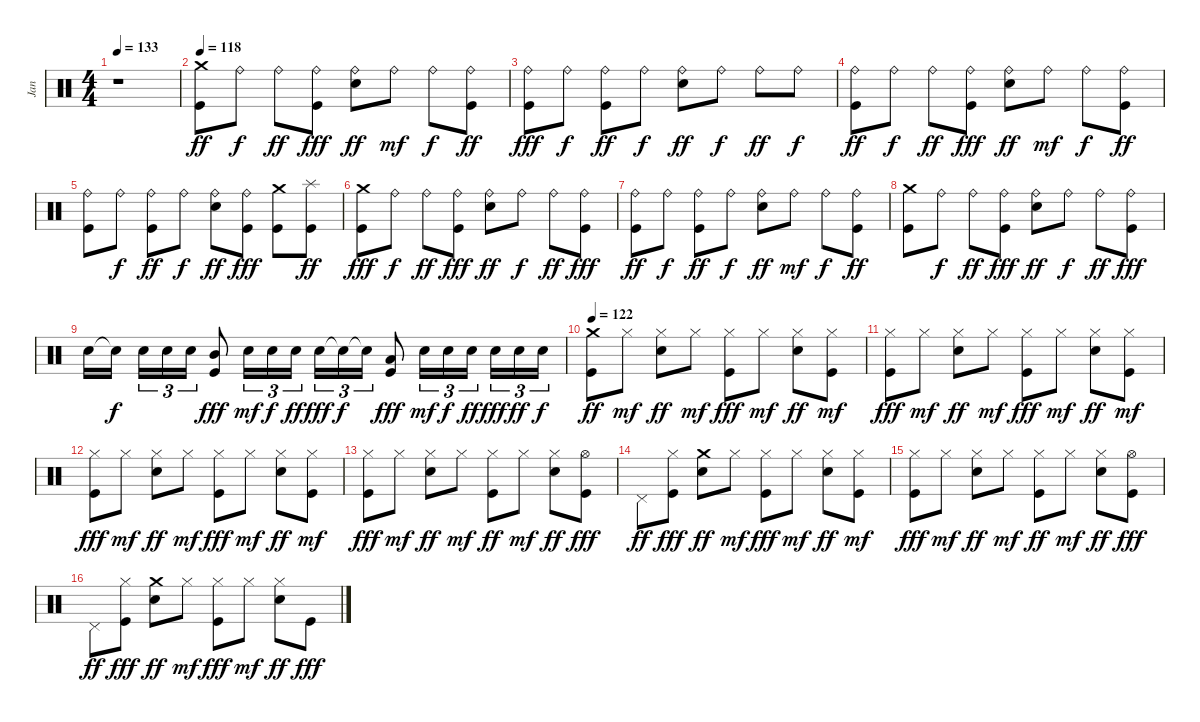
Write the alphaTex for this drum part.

\track ("Jan" "Jan") {instrument percussion}
\staff {score}
\articulation defaults
\ts (4 4)
\tempo 133
\clef neutral
\ks c
r.1{dy ff} |
\tempo 118
("Kick (hit)" "Crash medium (hit)").8 "Ride (bell)".8{dy f} "Ride (bell)".8{dy ff} ("Kick (hit)" "Ride (bell)").8{dy fff} ("Snare (hit) 2" "Ride (bell)").8{dy ff} "Ride (bell)".8{dy mf} "Ride (bell)".8{dy f} ("Kick (hit)" "Ride (bell)").8{dy ff} |
("Kick (hit)" "Ride (bell)").8{dy fff} "Ride (bell)".8{dy f} ("Kick (hit)" "Ride (bell)").8{dy ff} "Ride (bell)".8{dy f} ("Snare (hit) 2" "Ride (bell)").8{dy ff} "Ride (bell)".8{dy f} "Ride (bell)".8{dy ff} "Ride (bell)".8{dy f} |
("Kick (hit)" "Ride (bell)").8{dy ff} "Ride (bell)".8{dy f} "Ride (bell)".8{dy ff} ("Kick (hit)" "Ride (bell)").8{dy fff} ("Snare (hit) 2" "Ride (bell)").8{dy ff} "Ride (bell)".8{dy mf} "Ride (bell)".8{dy f} ("Kick (hit)" "Ride (bell)").8{dy ff} |
("Kick (hit)" "Ride (bell)").8 "Ride (bell)".8{dy f} ("Kick (hit)" "Ride (bell)").8{dy ff} "Ride (bell)".8{dy f} ("Snare (hit) 2" "Ride (bell)").8{dy ff} ("Kick (hit)" "Ride (bell)").8{dy fff} ("Kick (hit)" "Crash medium (hit)").8 ("Kick (hit)" "Splash (hit)").8{dy ff} |
("Kick (hit)" "Crash medium (hit)").8{dy fff} "Ride (bell)".8{dy f} "Ride (bell)".8{dy ff} ("Kick (hit)" "Ride (bell)").8{dy fff} ("Snare (hit) 2" "Ride (bell)").8{dy ff} "Ride (bell)".8{dy f} "Ride (bell)".8{dy ff} ("Kick (hit)" "Ride (bell)").8{dy fff} |
("Kick (hit)" "Ride (bell)").8{dy ff} "Ride (bell)".8{dy f} ("Kick (hit)" "Ride (bell)").8{dy ff} "Ride (bell)".8{dy f} ("Snare (hit) 2" "Ride (bell)").8{dy ff} "Ride (bell)".8{dy mf} "Ride (bell)".8{dy f} ("Kick (hit)" "Ride (bell)").8{dy ff} |
("Kick (hit)" "Crash medium (hit)").8 "Ride (bell)".8{dy f} "Ride (bell)".8{dy ff} ("Kick (hit)" "Ride (bell)").8{dy fff} ("Snare (hit) 2" "Ride (bell)").8{dy ff} "Ride (bell)".8{dy f} "Ride (bell)".8{dy ff} ("Kick (hit)" "Ride (bell)").8{dy fff} |
"Snare (hit) 2".16 "Snare (hit)"{t}.16{dy f} "Snare (hit) 2".16{tu (3 2)} "Snare (hit) 2".16{tu (3 2)} "Snare (hit) 2".16{tu (3 2)} ("Kick (hit)" "Mid Tom (hit)").8{dy fff} "Snare (hit) 2".16{tu (3 2) dy mf} "Snare (hit) 2".16{tu (3 2) dy f} "Snare (hit) 2".16{tu (3 2) dy ff} "Snare (hit) 2".16{tu (3 2) dy fff} "Snare (hit) 2"{t}.16{tu (3 2) dy f} "Snare (hit) 2"{t}.16{tu (3 2)} ("Kick (hit)" "Low Tom (hit)").8{dy fff} "Snare (hit) 2".16{tu (3 2) dy mf} "Snare (hit) 2".16{tu (3 2) dy f} "Snare (hit) 2".16{tu (3 2) dy ff} "Snare (hit) 2".16{tu (3 2) dy fff} "Snare (hit) 2".16{tu (3 2) dy ff} "Snare (hit) 2".16{tu (3 2) dy f} |
\tempo 122
("Kick (hit)" "Crash medium (hit)").8{dy ff} "Hi-Hat (closed)".8{dy mf} ("Snare (hit) 2" "Hi-Hat (closed)").8{dy ff} "Hi-Hat (closed)".8{dy mf} ("Kick (hit)" "Hi-Hat (closed)").8{dy fff} "Hi-Hat (closed)".8{dy mf} ("Snare (hit) 2" "Hi-Hat (closed)").8{dy ff} ("Kick (hit)" "Hi-Hat (closed)").8{dy mf} |
("Kick (hit)" "Hi-Hat (closed)").8{dy fff} "Hi-Hat (closed)".8{dy mf} ("Snare (hit) 2" "Hi-Hat (closed)").8{dy ff} "Hi-Hat (closed)".8{dy mf} ("Kick (hit)" "Hi-Hat (closed)").8{dy fff} "Hi-Hat (closed)".8{dy mf} ("Snare (hit) 2" "Hi-Hat (closed)").8{dy ff} ("Kick (hit)" "Hi-Hat (closed)").8{dy mf} |
("Kick (hit)" "Hi-Hat (closed)").8{dy fff} "Hi-Hat (closed)".8{dy mf} ("Snare (hit) 2" "Hi-Hat (closed)").8{dy ff} "Hi-Hat (closed)".8{dy mf} ("Kick (hit)" "Hi-Hat (closed)").8{dy fff} "Hi-Hat (closed)".8{dy mf} ("Snare (hit) 2" "Hi-Hat (closed)").8{dy ff} ("Kick (hit)" "Hi-Hat (closed)").8{dy mf} |
("Kick (hit)" "Hi-Hat (closed)").8{dy fff} "Hi-Hat (closed)".8{dy mf} ("Snare (hit) 2" "Hi-Hat (closed)").8{dy ff} "Hi-Hat (closed)".8{dy mf} ("Kick (hit)" "Hi-Hat (closed)").8{dy ff} "Hi-Hat (closed)".8{dy mf} ("Snare (hit) 2" "Hi-Hat (closed)").8{dy ff} ("Kick (hit)" "Hi-Hat (open)").8{dy fff} |
"Pedal Hi-Hat (hit)".8{dy ff} ("Kick (hit)" "Hi-Hat (closed)").8{dy fff} ("Snare (hit) 2" "Crash medium (hit)").8{dy ff} "Hi-Hat (closed)".8{dy mf} ("Kick (hit)" "Hi-Hat (closed)").8{dy fff} "Hi-Hat (closed)".8{dy mf} ("Snare (hit) 2" "Hi-Hat (closed)").8{dy ff} ("Kick (hit)" "Hi-Hat (closed)").8{dy mf} |
("Kick (hit)" "Hi-Hat (closed)").8{dy fff} "Hi-Hat (closed)".8{dy mf} ("Snare (hit) 2" "Hi-Hat (closed)").8{dy ff} "Hi-Hat (closed)".8{dy mf} ("Kick (hit)" "Hi-Hat (closed)").8{dy ff} "Hi-Hat (closed)".8{dy mf} ("Snare (hit) 2" "Hi-Hat (closed)").8{dy ff} ("Kick (hit)" "Hi-Hat (open)").8{dy fff} |
"Pedal Hi-Hat (hit)".8{dy ff} ("Kick (hit)" "Hi-Hat (closed)").8{dy fff} ("Snare (hit) 2" "Crash medium (hit)").8{dy ff} "Hi-Hat (closed)".8{dy mf} ("Kick (hit)" "Hi-Hat (closed)").8{dy fff} "Hi-Hat (closed)".8{dy mf} ("Snare (hit) 2" "Hi-Hat (closed)").8{dy ff} "Kick (hit)".8{dy fff}
